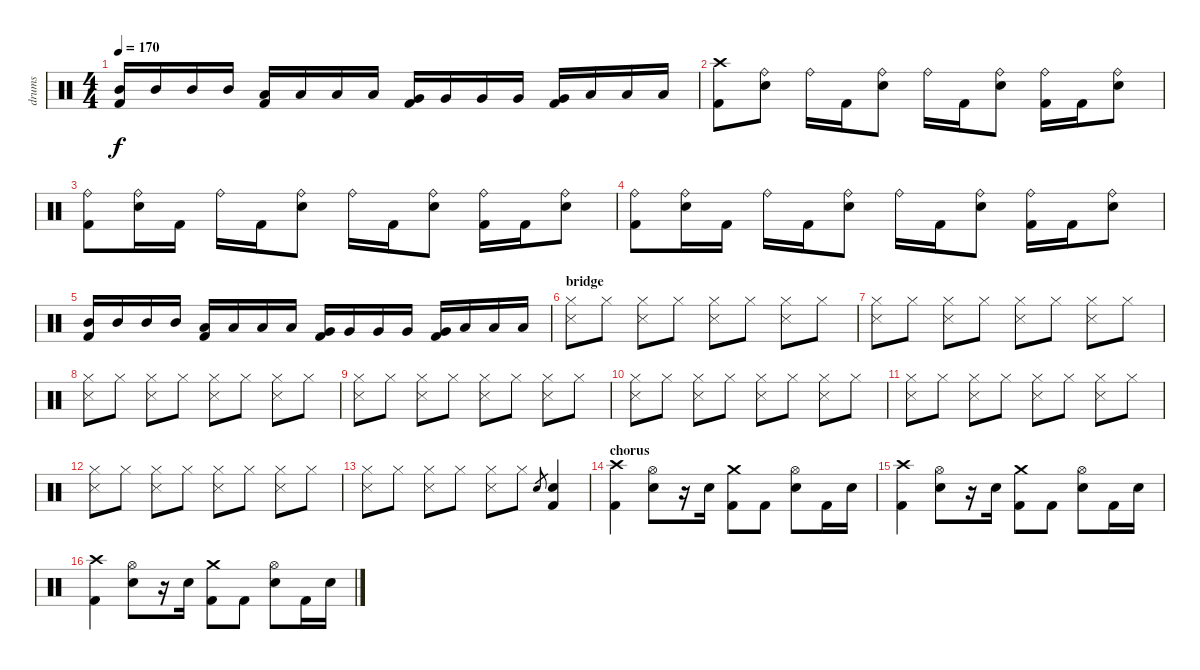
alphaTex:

\track ("drums" "drums") {instrument percussion}
\staff {score}
\articulation defaults
\ts (4 4)
\tempo 170
\clef neutral
\ks c
("Mid Tom (hit)" "Kick (hit) 2").16{dy f} "Mid Tom (hit)".16 "Mid Tom (hit)".16 "Mid Tom (hit)".16 ("Low Tom (hit)" "Kick (hit) 2").16 "Low Tom (hit)".16 "Low Tom (hit)".16 "Low Tom (hit)".16 ("Very Low Tom (hit)" "Kick (hit) 2").16 "Very Low Tom (hit)".16 "Very Low Tom (hit)".16 "Very Low Tom (hit)".16 ("Very Low Tom (hit)" "Kick (hit) 2").16 "Low Floor Tom (hit)".16 "Low Floor Tom (hit)".16 "Low Floor Tom (hit)".16 |
("Crash high (hit)" "Kick (hit) 2").8 ("Ride (bell)" "Electric Snare (hit)").8 "Ride (bell)".16 "Kick (hit) 2".16 ("Ride (bell)" "Electric Snare (hit)").8 "Ride (bell)".16 "Kick (hit) 2".16 ("Ride (bell)" "Electric Snare (hit)").8 ("Ride (bell)" "Kick (hit) 2").16 "Kick (hit) 2".16 ("Ride (bell)" "Electric Snare (hit)").8 |
("Ride (bell)" "Kick (hit) 2").8 ("Ride (bell)" "Electric Snare (hit)").16 "Kick (hit) 2".16 "Ride (bell)".16 "Kick (hit) 2".16 ("Ride (bell)" "Electric Snare (hit)").8 "Ride (bell)".16 "Kick (hit) 2".16 ("Ride (bell)" "Electric Snare (hit)").8 ("Ride (bell)" "Kick (hit) 2").16 "Kick (hit) 2".16 ("Ride (bell)" "Electric Snare (hit)").8 |
("Ride (bell)" "Kick (hit) 2").8 ("Ride (bell)" "Electric Snare (hit)").16 "Kick (hit) 2".16 "Ride (bell)".16 "Kick (hit) 2".16 ("Ride (bell)" "Electric Snare (hit)").8 "Ride (bell)".16 "Kick (hit) 2".16 ("Ride (bell)" "Electric Snare (hit)").8 ("Ride (bell)" "Kick (hit) 2").16 "Kick (hit) 2".16 ("Ride (bell)" "Electric Snare (hit)").8 |
("Mid Tom (hit)" "Kick (hit) 2").16 "Mid Tom (hit)".16 "Mid Tom (hit)".16 "Mid Tom (hit)".16 ("Low Tom (hit)" "Kick (hit) 2").16 "Low Tom (hit)".16 "Low Tom (hit)".16 "Low Tom (hit)".16 ("Very Low Tom (hit)" "Kick (hit) 2").16 "Very Low Tom (hit)".16 "Very Low Tom (hit)".16 "Very Low Tom (hit)".16 ("Very Low Tom (hit)" "Kick (hit) 2").16 "Low Floor Tom (hit)".16 "Low Floor Tom (hit)".16 "Low Floor Tom (hit)".16 |
\section ("" "bridge")
("Hi-Hat (closed)" "Snare (side stick) 3").8 "Hi-Hat (closed)".8 ("Hi-Hat (closed)" "Snare (side stick) 3").8 "Hi-Hat (closed)".8 ("Hi-Hat (closed)" "Snare (side stick) 3").8 "Hi-Hat (closed)".8 ("Hi-Hat (closed)" "Snare (side stick) 3").8 "Hi-Hat (closed)".8 |
("Hi-Hat (closed)" "Snare (side stick) 3").8 "Hi-Hat (closed)".8 ("Hi-Hat (closed)" "Snare (side stick) 3").8 "Hi-Hat (closed)".8 ("Hi-Hat (closed)" "Snare (side stick) 3").8 "Hi-Hat (closed)".8 ("Hi-Hat (closed)" "Snare (side stick) 3").8 "Hi-Hat (closed)".8 |
("Hi-Hat (closed)" "Snare (side stick) 3").8 "Hi-Hat (closed)".8 ("Hi-Hat (closed)" "Snare (side stick) 3").8 "Hi-Hat (closed)".8 ("Hi-Hat (closed)" "Snare (side stick) 3").8 "Hi-Hat (closed)".8 ("Hi-Hat (closed)" "Snare (side stick) 3").8 "Hi-Hat (closed)".8 |
("Hi-Hat (closed)" "Snare (side stick) 3").8 "Hi-Hat (closed)".8 ("Hi-Hat (closed)" "Snare (side stick) 3").8 "Hi-Hat (closed)".8 ("Hi-Hat (closed)" "Snare (side stick) 3").8 "Hi-Hat (closed)".8 ("Hi-Hat (closed)" "Snare (side stick) 3").8 "Hi-Hat (closed)".8 |
("Hi-Hat (closed)" "Snare (side stick) 3").8 "Hi-Hat (closed)".8 ("Hi-Hat (closed)" "Snare (side stick) 3").8 "Hi-Hat (closed)".8 ("Hi-Hat (closed)" "Snare (side stick) 3").8 "Hi-Hat (closed)".8 ("Hi-Hat (closed)" "Snare (side stick) 3").8 "Hi-Hat (closed)".8 |
("Hi-Hat (closed)" "Snare (side stick) 3").8 "Hi-Hat (closed)".8 ("Hi-Hat (closed)" "Snare (side stick) 3").8 "Hi-Hat (closed)".8 ("Hi-Hat (closed)" "Snare (side stick) 3").8 "Hi-Hat (closed)".8 ("Hi-Hat (closed)" "Snare (side stick) 3").8 "Hi-Hat (closed)".8 |
("Hi-Hat (closed)" "Snare (side stick) 3").8 "Hi-Hat (closed)".8 ("Hi-Hat (closed)" "Snare (side stick) 3").8 "Hi-Hat (closed)".8 ("Hi-Hat (closed)" "Snare (side stick) 3").8 "Hi-Hat (closed)".8 ("Hi-Hat (closed)" "Snare (side stick) 3").8 "Hi-Hat (closed)".8 |
("Hi-Hat (closed)" "Snare (side stick) 3").8 "Hi-Hat (closed)".8 ("Hi-Hat (closed)" "Snare (side stick) 3").8 "Hi-Hat (closed)".8 ("Hi-Hat (closed)" "Snare (side stick) 3").8 "Hi-Hat (closed)".8 "Electric Snare (hit)".8{gr} ("Electric Snare (hit)" "Kick (hit) 2").4 |
\section ("" "chorus")
("Crash high (hit)" "Kick (hit) 2").4 ("Hi-Hat (open)" "Electric Snare (hit)").8 r.16 "Electric Snare (hit)".16 ("Crash medium (hit)" "Kick (hit) 2").8 "Kick (hit) 2".8 ("Hi-Hat (open)" "Electric Snare (hit)").8 "Kick (hit) 2".16 "Electric Snare (hit)".16 |
("Crash high (hit)" "Kick (hit) 2").4 ("Hi-Hat (open)" "Electric Snare (hit)").8 r.16 "Electric Snare (hit)".16 ("Crash medium (hit)" "Kick (hit) 2").8 "Kick (hit) 2".8 ("Hi-Hat (open)" "Electric Snare (hit)").8 "Kick (hit) 2".16 "Electric Snare (hit)".16 |
("Crash high (hit)" "Kick (hit) 2").4 ("Hi-Hat (open)" "Electric Snare (hit)").8 r.16 "Electric Snare (hit)".16 ("Crash medium (hit)" "Kick (hit) 2").8 "Kick (hit) 2".8 ("Hi-Hat (open)" "Electric Snare (hit)").8 "Kick (hit) 2".16 "Electric Snare (hit)".16
